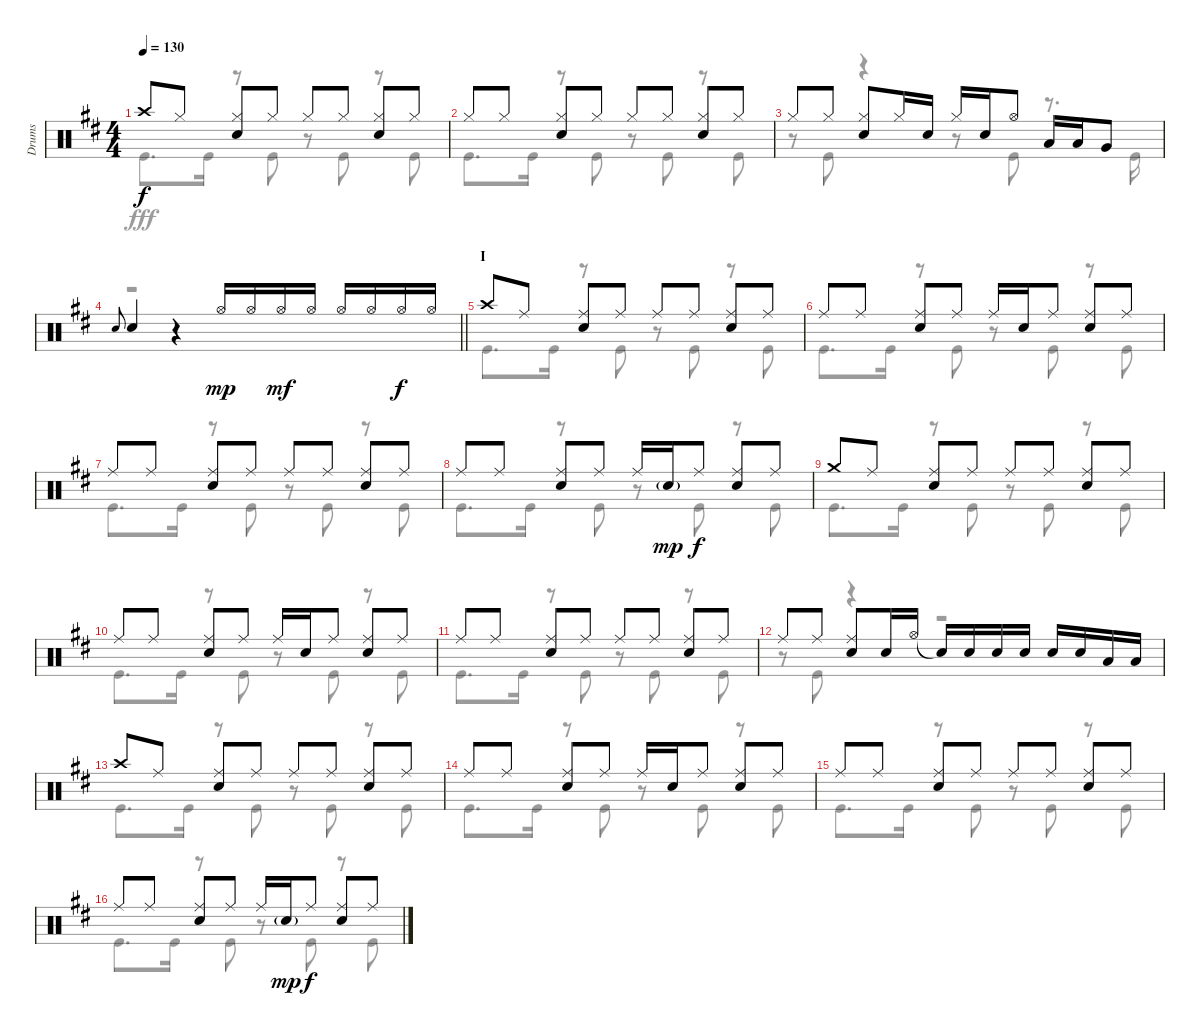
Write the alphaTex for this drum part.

\track ("Drums" "Drums") {instrument percussion}
\staff {score}
\articulation defaults
\voice
\ts (4 4)
\tempo 130
\clef neutral
\ks d "Crash high (hit)".8{dy f} "Hi-Hat (closed)".8
("Hi-Hat (closed)" "Snare (hit) 2").8 "Hi-Hat (closed)".8 "Hi-Hat (closed)".8 "Hi-Hat (closed)".8 ("Hi-Hat (closed)" "Snare (hit) 2").8 "Hi-Hat (closed)".8 |
"Hi-Hat (closed)".8 "Hi-Hat (closed)".8 ("Hi-Hat (closed)" "Snare (hit) 2").8 "Hi-Hat (closed)".8 "Hi-Hat (closed)".8 "Hi-Hat (closed)".8 ("Hi-Hat (closed)" "Snare (hit) 2").8 "Hi-Hat (closed)".8 |
"Hi-Hat (closed)".8 "Hi-Hat (closed)".8 ("Hi-Hat (closed)" "Snare (hit) 2").8 "Hi-Hat (closed)".16 "Snare (hit) 2".16 "Hi-Hat (closed)".16 "Snare (hit) 2".16 "Hi-Hat (open)".8 "Low Tom (hit)".16 "Low Tom (hit)".16 "Very Low Tom (hit)".8 |
\barLineRight lightlight "Snare (hit) 2".8{gr onbeat} "Snare (hit) 2".4
r.4 "Hi-Hat (open)".16{dy mp} "Hi-Hat (open)".16 "Hi-Hat (open)".16{dy mf} "Hi-Hat (open)".16 "Hi-Hat (open)".16 "Hi-Hat (open)".16 "Hi-Hat (open)".16{dy f} "Hi-Hat (open)".16 |
\section ("" "I")
"Crash high (hit)".8 "Ride (middle)".8 ("Ride (middle)" "Snare (hit) 2").8 "Ride (middle)".8 "Ride (middle)".8 "Ride (middle)".8 ("Ride (middle)" "Snare (hit) 2").8 "Ride (middle)".8 |
"Ride (middle)".8 "Ride (middle)".8 ("Ride (middle)" "Snare (hit) 2").8 "Ride (middle)".8 "Ride (middle)".16 "Snare (hit) 2".16 "Ride (middle)".8 ("Ride (middle)" "Snare (hit) 2").8 "Ride (middle)".8 |
"Ride (middle)".8 "Ride (middle)".8 ("Ride (middle)" "Snare (hit) 2").8 "Ride (middle)".8 "Ride (middle)".8 "Ride (middle)".8 ("Ride (middle)" "Snare (hit) 2").8 "Ride (middle)".8 |
"Ride (middle)".8 "Ride (middle)".8 ("Ride (middle)" "Snare (hit) 2").8 "Ride (middle)".8 "Ride (middle)".16 "Snare (hit) 2"{g}.16{dy mp} "Ride (middle)".8{dy f} ("Ride (middle)" "Snare (hit) 2").8 "Ride (middle)".8 |
"Crash medium (hit)".8 "Ride (middle)".8 ("Ride (middle)" "Snare (hit) 2").8 "Ride (middle)".8 "Ride (middle)".8 "Ride (middle)".8 ("Ride (middle)" "Snare (hit) 2").8 "Ride (middle)".8 |
"Ride (middle)".8 "Ride (middle)".8 ("Ride (middle)" "Snare (hit) 2").8 "Ride (middle)".8 "Ride (middle)".16 "Snare (hit) 2".16 "Ride (middle)".8 ("Ride (middle)" "Snare (hit) 2").8 "Ride (middle)".8 |
"Ride (middle)".8 "Ride (middle)".8 ("Ride (middle)" "Snare (hit) 2").8 "Ride (middle)".8 "Ride (middle)".8 "Ride (middle)".8 ("Ride (middle)" "Snare (hit) 2").8 "Ride (middle)".8 |
"Ride (middle)".8 "Ride (middle)".8 ("Ride (middle)" "Snare (hit) 2").8 "Snare (hit) 2".16 "Hi-Hat (open)".16 "Snare (hit)"{t}.16 "Snare (hit) 2".16 "Snare (hit) 2".16 "Snare (hit) 2".16 "Snare (hit) 2".16 "Snare (hit) 2".16 "Low Tom (hit)".16 "Low Tom (hit)".16 |
"Crash high (hit)".8 "Ride (middle)".8 ("Ride (middle)" "Snare (hit) 2").8 "Ride (middle)".8 "Ride (middle)".8 "Ride (middle)".8 ("Ride (middle)" "Snare (hit) 2").8 "Ride (middle)".8 |
"Ride (middle)".8 "Ride (middle)".8 ("Ride (middle)" "Snare (hit) 2").8 "Ride (middle)".8 "Ride (middle)".16 "Snare (hit) 2".16 "Ride (middle)".8 ("Ride (middle)" "Snare (hit) 2").8 "Ride (middle)".8 |
"Ride (middle)".8 "Ride (middle)".8 ("Ride (middle)" "Snare (hit) 2").8 "Ride (middle)".8 "Ride (middle)".8 "Ride (middle)".8 ("Ride (middle)" "Snare (hit) 2").8 "Ride (middle)".8 |
"Ride (middle)".8 "Ride (middle)".8 ("Ride (middle)" "Snare (hit) 2").8 "Ride (middle)".8 "Ride (middle)".16 "Snare (hit) 2"{g}.16{dy mp} "Ride (middle)".8{dy f} ("Ride (middle)" "Snare (hit) 2").8 "Ride (middle)".8
\voice
\clef neutral
\ottava regular
\simile none
\ks d "Kick (hit)".8{d dy fff} "Kick (hit)".16
r.8 "Kick (hit)".8 r.8 "Kick (hit)".8 r.8 "Kick (hit)".8 |
"Kick (hit)".8{d} "Kick (hit)".16 r.8 "Kick (hit)".8 r.8 "Kick (hit)".8 r.8 "Kick (hit)".8 |
r.8 "Kick (hit)".8 r.4 r.8 "Kick (hit)".8 r.8{d} "Kick (hit)".16 |
\barLineRight lightlight
r.1 |
"Kick (hit)".8{d} "Kick (hit)".16 r.8 "Kick (hit)".8 r.8 "Kick (hit)".8 r.8 "Kick (hit)".8 |
"Kick (hit)".8{d} "Kick (hit)".16 r.8 "Kick (hit)".8 r.8 "Kick (hit)".8 r.8 "Kick (hit)".8 |
"Kick (hit)".8{d} "Kick (hit)".16 r.8 "Kick (hit)".8 r.8 "Kick (hit)".8 r.8 "Kick (hit)".8 |
"Kick (hit)".8{d} "Kick (hit)".16 r.8 "Kick (hit)".8 r.8 "Kick (hit)".8 r.8 "Kick (hit)".8 |
"Kick (hit)".8{d} "Kick (hit)".16 r.8 "Kick (hit)".8 r.8 "Kick (hit)".8 r.8 "Kick (hit)".8 |
"Kick (hit)".8{d} "Kick (hit)".16 r.8 "Kick (hit)".8 r.8 "Kick (hit)".8 r.8 "Kick (hit)".8 |
"Kick (hit)".8{d} "Kick (hit)".16 r.8 "Kick (hit)".8 r.8 "Kick (hit)".8 r.8 "Kick (hit)".8 |
r.8 "Kick (hit)".8 r.4 r.2 |
"Kick (hit)".8{d} "Kick (hit)".16 r.8 "Kick (hit)".8 r.8 "Kick (hit)".8 r.8 "Kick (hit)".8 |
"Kick (hit)".8{d} "Kick (hit)".16 r.8 "Kick (hit)".8 r.8 "Kick (hit)".8 r.8 "Kick (hit)".8 |
"Kick (hit)".8{d} "Kick (hit)".16 r.8 "Kick (hit)".8 r.8 "Kick (hit)".8 r.8 "Kick (hit)".8 |
"Kick (hit)".8{d} "Kick (hit)".16 r.8 "Kick (hit)".8 r.8 "Kick (hit)".8 r.8 "Kick (hit)".8
